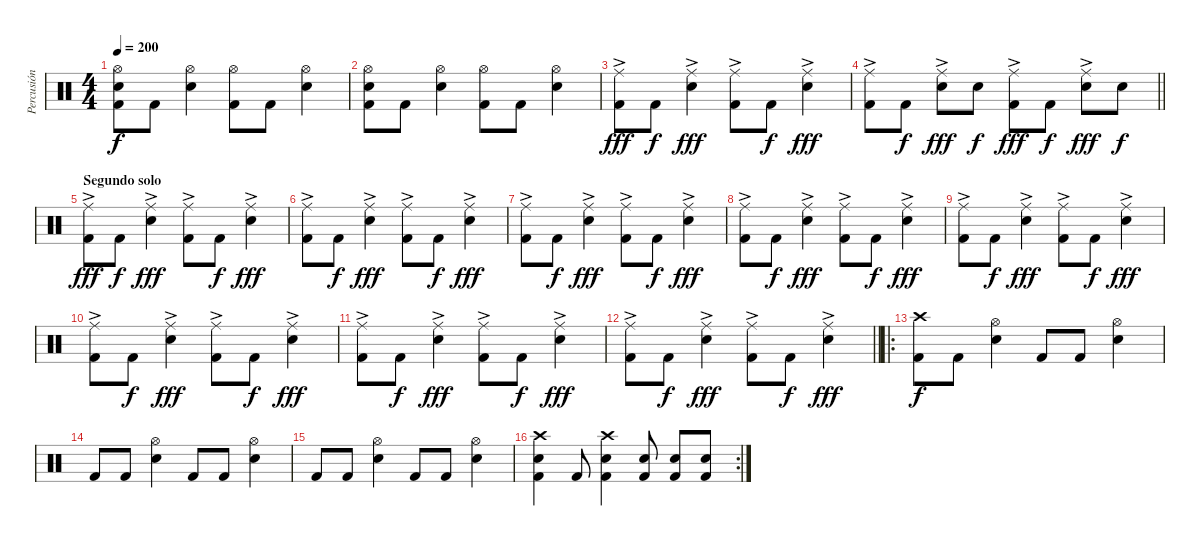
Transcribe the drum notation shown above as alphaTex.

\track ("Percusión" "Percusión") {instrument percussion}
\staff {score}
\articulation defaults
\ts (4 4)
\tempo 200
\clef neutral
\ks c
("Hi-Hat (open)" "Snare (hit) 2" "Kick (hit) 2").8{dy f} "Kick (hit) 2".8 ("Hi-Hat (open)" "Snare (hit) 2").4 ("Hi-Hat (open)" "Kick (hit) 2").8 "Kick (hit) 2".8 ("Hi-Hat (open)" "Snare (hit) 2").4 |
("Hi-Hat (open)" "Snare (hit) 2" "Kick (hit) 2").8 "Kick (hit) 2".8 ("Hi-Hat (open)" "Snare (hit) 2").4 ("Hi-Hat (open)" "Kick (hit) 2").8 "Kick (hit) 2".8 ("Hi-Hat (open)" "Snare (hit) 2").4 |
("Ride (middle)"{ac} "Kick (hit) 2").8{dy fff} "Kick (hit) 2".8{dy f} ("Ride (middle)"{ac} "Snare (hit) 2").4{dy fff} ("Ride (middle)"{ac} "Kick (hit) 2").8 "Kick (hit) 2".8{dy f} ("Ride (middle)"{ac} "Snare (hit) 2").4{dy fff} |
\barLineRight lightlight
("Ride (middle)"{ac} "Kick (hit) 2").8 "Kick (hit) 2".8{dy f} ("Ride (middle)"{ac} "Snare (hit) 2").8{dy fff} "Snare (hit) 2".8{dy f} ("Ride (middle)"{ac} "Kick (hit) 2").8{dy fff} "Kick (hit) 2".8{dy f} ("Ride (middle)"{ac} "Snare (hit) 2").8{dy fff} "Snare (hit) 2".8{dy f} |
\section ("" "Segundo solo")
("Ride (middle)"{ac} "Kick (hit) 2").8{dy fff} "Kick (hit) 2".8{dy f} ("Ride (middle)"{ac} "Snare (hit) 2").4{dy fff} ("Ride (middle)"{ac} "Kick (hit) 2").8 "Kick (hit) 2".8{dy f} ("Ride (middle)"{ac} "Snare (hit) 2").4{dy fff} |
("Ride (middle)"{ac} "Kick (hit) 2").8 "Kick (hit) 2".8{dy f} ("Ride (middle)"{ac} "Snare (hit) 2").4{dy fff} ("Ride (middle)"{ac} "Kick (hit) 2").8 "Kick (hit) 2".8{dy f} ("Ride (middle)"{ac} "Snare (hit) 2").4{dy fff} |
("Ride (middle)"{ac} "Kick (hit) 2").8 "Kick (hit) 2".8{dy f} ("Ride (middle)"{ac} "Snare (hit) 2").4{dy fff} ("Ride (middle)"{ac} "Kick (hit) 2").8 "Kick (hit) 2".8{dy f} ("Ride (middle)"{ac} "Snare (hit) 2").4{dy fff} |
("Ride (middle)"{ac} "Kick (hit) 2").8 "Kick (hit) 2".8{dy f} ("Ride (middle)"{ac} "Snare (hit) 2").4{dy fff} ("Ride (middle)"{ac} "Kick (hit) 2").8 "Kick (hit) 2".8{dy f} ("Ride (middle)"{ac} "Snare (hit) 2").4{dy fff} |
("Ride (middle)"{ac} "Kick (hit) 2").8 "Kick (hit) 2".8{dy f} ("Ride (middle)"{ac} "Snare (hit) 2").4{dy fff} ("Ride (middle)"{ac} "Kick (hit) 2").8 "Kick (hit) 2".8{dy f} ("Ride (middle)"{ac} "Snare (hit) 2").4{dy fff} |
("Ride (middle)"{ac} "Kick (hit) 2").8 "Kick (hit) 2".8{dy f} ("Ride (middle)"{ac} "Snare (hit) 2").4{dy fff} ("Ride (middle)"{ac} "Kick (hit) 2").8 "Kick (hit) 2".8{dy f} ("Ride (middle)"{ac} "Snare (hit) 2").4{dy fff} |
("Ride (middle)"{ac} "Kick (hit) 2").8 "Kick (hit) 2".8{dy f} ("Ride (middle)"{ac} "Snare (hit) 2").4{dy fff} ("Ride (middle)"{ac} "Kick (hit) 2").8 "Kick (hit) 2".8{dy f} ("Ride (middle)"{ac} "Snare (hit) 2").4{dy fff} |
\barLineRight lightlight
("Ride (middle)"{ac} "Kick (hit) 2").8 "Kick (hit) 2".8{dy f} ("Ride (middle)"{ac} "Snare (hit) 2").4{dy fff} ("Ride (middle)"{ac} "Kick (hit) 2").8 "Kick (hit) 2".8{dy f} ("Ride (middle)"{ac} "Snare (hit) 2").4{dy fff} |
\ro
("Crash high (hit)" "Kick (hit) 2").8{dy f} "Kick (hit) 2".8 ("Hi-Hat (open)" "Snare (hit) 2").4 "Kick (hit) 2".8 "Kick (hit) 2".8 ("Hi-Hat (open)" "Snare (hit) 2").4 |
"Kick (hit) 2".8 "Kick (hit) 2".8 ("Hi-Hat (open)" "Snare (hit) 2").4 "Kick (hit) 2".8 "Kick (hit) 2".8 ("Hi-Hat (open)" "Snare (hit) 2").4 |
"Kick (hit) 2".8 "Kick (hit) 2".8 ("Hi-Hat (open)" "Snare (hit) 2").4 "Kick (hit) 2".8 "Kick (hit) 2".8 ("Hi-Hat (open)" "Snare (hit) 2").4 |
\rc 2
("Crash high (hit)" "Snare (hit) 2" "Kick (hit) 2").4 "Kick (hit) 2".8 ("Crash high (hit)" "Snare (hit) 2" "Kick (hit) 2").4 ("Snare (hit) 2" "Kick (hit) 2").8 ("Snare (hit) 2" "Kick (hit) 2").8 ("Snare (hit) 2" "Kick (hit) 2").8
